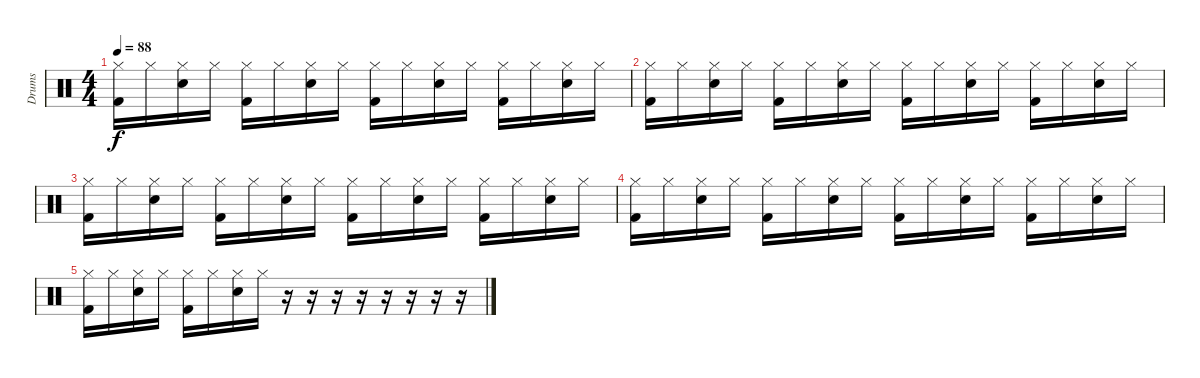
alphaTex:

\track ("Drums" "Drums") {instrument percussion}
\staff {score}
\articulation defaults
\ts (4 4)
\tempo 88
\clef neutral
\ks c
("Hi-Hat (closed)" "Kick (hit) 2").16{dy f} "Hi-Hat (closed)".16 ("Hi-Hat (closed)" "Electric Snare (hit)").16 "Hi-Hat (closed)".16 ("Hi-Hat (closed)" "Kick (hit) 2").16 "Hi-Hat (closed)".16 ("Hi-Hat (closed)" "Electric Snare (hit)").16 "Hi-Hat (closed)".16 ("Hi-Hat (closed)" "Kick (hit) 2").16 "Hi-Hat (closed)".16 ("Hi-Hat (closed)" "Electric Snare (hit)").16 "Hi-Hat (closed)".16 ("Hi-Hat (closed)" "Kick (hit) 2").16 "Hi-Hat (closed)".16 ("Hi-Hat (closed)" "Electric Snare (hit)").16 "Hi-Hat (closed)".16 |
("Hi-Hat (closed)" "Kick (hit) 2").16 "Hi-Hat (closed)".16 ("Hi-Hat (closed)" "Electric Snare (hit)").16 "Hi-Hat (closed)".16 ("Hi-Hat (closed)" "Kick (hit) 2").16 "Hi-Hat (closed)".16 ("Hi-Hat (closed)" "Electric Snare (hit)").16 "Hi-Hat (closed)".16 ("Hi-Hat (closed)" "Kick (hit) 2").16 "Hi-Hat (closed)".16 ("Hi-Hat (closed)" "Electric Snare (hit)").16 "Hi-Hat (closed)".16 ("Hi-Hat (closed)" "Kick (hit) 2").16 "Hi-Hat (closed)".16 ("Hi-Hat (closed)" "Electric Snare (hit)").16 "Hi-Hat (closed)".16 |
("Hi-Hat (closed)" "Kick (hit) 2").16 "Hi-Hat (closed)".16 ("Hi-Hat (closed)" "Electric Snare (hit)").16 "Hi-Hat (closed)".16 ("Hi-Hat (closed)" "Kick (hit) 2").16 "Hi-Hat (closed)".16 ("Hi-Hat (closed)" "Electric Snare (hit)").16 "Hi-Hat (closed)".16 ("Hi-Hat (closed)" "Kick (hit) 2").16 "Hi-Hat (closed)".16 ("Hi-Hat (closed)" "Electric Snare (hit)").16 "Hi-Hat (closed)".16 ("Hi-Hat (closed)" "Kick (hit) 2").16 "Hi-Hat (closed)".16 ("Hi-Hat (closed)" "Electric Snare (hit)").16 "Hi-Hat (closed)".16 |
("Hi-Hat (closed)" "Kick (hit) 2").16 "Hi-Hat (closed)".16 ("Hi-Hat (closed)" "Electric Snare (hit)").16 "Hi-Hat (closed)".16 ("Hi-Hat (closed)" "Kick (hit) 2").16 "Hi-Hat (closed)".16 ("Hi-Hat (closed)" "Electric Snare (hit)").16 "Hi-Hat (closed)".16 ("Hi-Hat (closed)" "Kick (hit) 2").16 "Hi-Hat (closed)".16 ("Hi-Hat (closed)" "Electric Snare (hit)").16 "Hi-Hat (closed)".16 ("Hi-Hat (closed)" "Kick (hit) 2").16 "Hi-Hat (closed)".16 ("Hi-Hat (closed)" "Electric Snare (hit)").16 "Hi-Hat (closed)".16 |
("Hi-Hat (closed)" "Kick (hit) 2").16 "Hi-Hat (closed)".16 ("Hi-Hat (closed)" "Electric Snare (hit)").16 "Hi-Hat (closed)".16 ("Hi-Hat (closed)" "Kick (hit) 2").16 "Hi-Hat (closed)".16 ("Hi-Hat (closed)" "Electric Snare (hit)").16 "Hi-Hat (closed)".16 r.16 r.16 r.16 r.16 r.16 r.16 r.16 r.16
